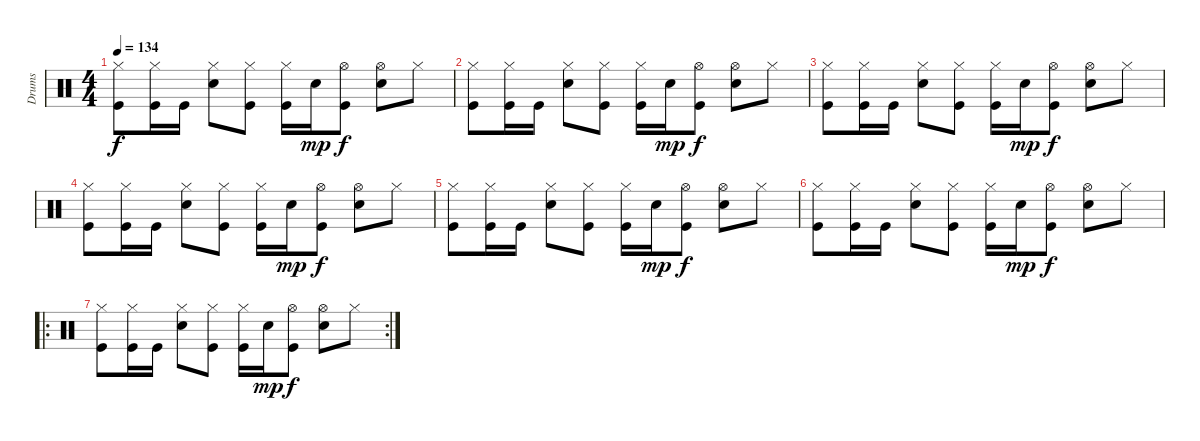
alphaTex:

\track ("Drums" "Drums") {instrument percussion}
\staff {score}
\articulation defaults
\ts (4 4)
\tempo 134
\clef neutral
\ks c
("Hi-Hat (closed)" "Kick (hit)").8{dy f} ("Hi-Hat (closed)" "Kick (hit)").16 "Kick (hit)".16 ("Hi-Hat (closed)" "Snare (hit) 2").8 ("Hi-Hat (closed)" "Kick (hit)").8 ("Hi-Hat (closed)" "Kick (hit)").16 "Snare (hit) 2".16{dy mp} ("Hi-Hat (open)" "Kick (hit)").8{dy f} ("Hi-Hat (open)" "Snare (hit) 2").8 "Hi-Hat (closed)".8 |
("Hi-Hat (closed)" "Kick (hit)").8 ("Hi-Hat (closed)" "Kick (hit)").16 "Kick (hit)".16 ("Hi-Hat (closed)" "Snare (hit) 2").8 ("Hi-Hat (closed)" "Kick (hit)").8 ("Hi-Hat (closed)" "Kick (hit)").16 "Snare (hit) 2".16{dy mp} ("Hi-Hat (open)" "Kick (hit)").8{dy f} ("Hi-Hat (open)" "Snare (hit) 2").8 "Hi-Hat (closed)".8 |
("Hi-Hat (closed)" "Kick (hit)").8 ("Hi-Hat (closed)" "Kick (hit)").16 "Kick (hit)".16 ("Hi-Hat (closed)" "Snare (hit) 2").8 ("Hi-Hat (closed)" "Kick (hit)").8 ("Hi-Hat (closed)" "Kick (hit)").16 "Snare (hit) 2".16{dy mp} ("Hi-Hat (open)" "Kick (hit)").8{dy f} ("Hi-Hat (open)" "Snare (hit) 2").8 "Hi-Hat (closed)".8 |
("Hi-Hat (closed)" "Kick (hit)").8 ("Hi-Hat (closed)" "Kick (hit)").16 "Kick (hit)".16 ("Hi-Hat (closed)" "Snare (hit) 2").8 ("Hi-Hat (closed)" "Kick (hit)").8 ("Hi-Hat (closed)" "Kick (hit)").16 "Snare (hit) 2".16{dy mp} ("Hi-Hat (open)" "Kick (hit)").8{dy f} ("Hi-Hat (open)" "Snare (hit) 2").8 "Hi-Hat (closed)".8 |
("Hi-Hat (closed)" "Kick (hit)").8 ("Hi-Hat (closed)" "Kick (hit)").16 "Kick (hit)".16 ("Hi-Hat (closed)" "Snare (hit) 2").8 ("Hi-Hat (closed)" "Kick (hit)").8 ("Hi-Hat (closed)" "Kick (hit)").16 "Snare (hit) 2".16{dy mp} ("Hi-Hat (open)" "Kick (hit)").8{dy f} ("Hi-Hat (open)" "Snare (hit) 2").8 "Hi-Hat (closed)".8 |
("Hi-Hat (closed)" "Kick (hit)").8 ("Hi-Hat (closed)" "Kick (hit)").16 "Kick (hit)".16 ("Hi-Hat (closed)" "Snare (hit) 2").8 ("Hi-Hat (closed)" "Kick (hit)").8 ("Hi-Hat (closed)" "Kick (hit)").16 "Snare (hit) 2".16{dy mp} ("Hi-Hat (open)" "Kick (hit)").8{dy f} ("Hi-Hat (open)" "Snare (hit) 2").8 "Hi-Hat (closed)".8 |
\ro
\rc 2
("Hi-Hat (closed)" "Kick (hit)").8 ("Hi-Hat (closed)" "Kick (hit)").16 "Kick (hit)".16 ("Hi-Hat (closed)" "Snare (hit) 2").8 ("Hi-Hat (closed)" "Kick (hit)").8 ("Hi-Hat (closed)" "Kick (hit)").16 "Snare (hit) 2".16{dy mp} ("Hi-Hat (open)" "Kick (hit)").8{dy f} ("Hi-Hat (open)" "Snare (hit) 2").8 "Hi-Hat (closed)".8
